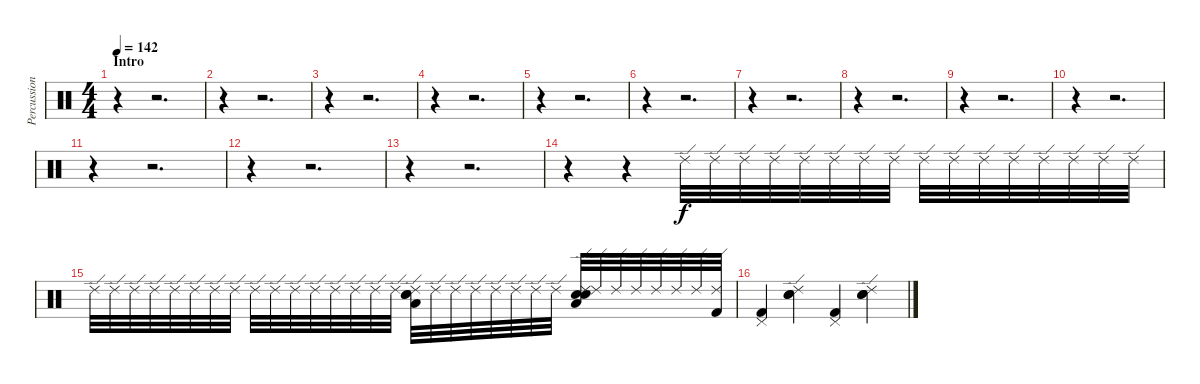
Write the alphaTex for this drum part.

\track ("Percussions" "Percussion") {instrument percussion}
\staff {score}
\articulation defaults
\ts (4 4)
\section ("" "Intro")
\tempo 142
\clef neutral
\ks c
r.4{dy f} r.2{d} |
r.4 r.2{d} |
r.4 r.2{d} |
r.4 r.2{d} |
r.4 r.2{d} |
r.4 r.2{d} |
r.4 r.2{d} |
r.4 r.2{d} |
r.4 r.2{d} |
r.4 r.2{d} |
r.4 r.2{d} |
r.4 r.2{d} |
r.4 r.2{d} |
r.4 r.4 "Ride (edge) 2".32 "Ride (edge) 2".32 "Ride (edge) 2".32 "Ride (edge) 2".32 "Ride (edge) 2".32 "Ride (edge) 2".32 "Ride (edge) 2".32 "Ride (edge) 2".32 "Ride (edge) 2".32 "Ride (edge) 2".32 "Ride (edge) 2".32 "Ride (edge) 2".32 "Ride (edge) 2".32 "Ride (edge) 2".32 "Ride (edge) 2".32 "Ride (edge) 2".32 |
"Ride (edge) 2".32 "Ride (edge) 2".32 "Ride (edge) 2".32 "Ride (edge) 2".32 "Ride (edge) 2".32 "Ride (edge) 2".32 "Ride (edge) 2".32 "Ride (edge) 2".32 "Ride (edge) 2".32 "Ride (edge) 2".32 "Ride (edge) 2".32 "Ride (edge) 2".32 "Ride (edge) 2".32 "Ride (edge) 2".32 "Ride (edge) 2".32 "Ride (edge) 2".32 ("Ride (edge) 2" "Snare (hit) 2" "Electric Snare (hit)" "Low Tom (hit)").32 "Ride (edge) 2".32 "Ride (edge) 2".32 "Ride (edge) 2".32 "Ride (edge) 2".32 "Ride (edge) 2".32 "Ride (edge) 2".32 "Ride (edge) 2".32 ("Ride (edge) 2" "Snare (hit) 2" "Electric Snare (hit)" "Low Tom (hit)").32 "Ride (edge) 2".32 "Ride (edge) 2".32 "Ride (edge) 2".32 "Ride (edge) 2".32 "Ride (edge) 2".32 "Ride (edge) 2".32 ("Ride (edge) 2" "Kick (hit) 2").32 |
("Kick (hit) 2" "Pedal Hi-Hat (hit)").4 ("Snare (hit) 2" "Electric Snare (hit)" "Ride (edge) 2").4 ("Kick (hit) 2" "Pedal Hi-Hat (hit)").4 ("Snare (hit) 2" "Electric Snare (hit)" "Ride (edge) 2").4
